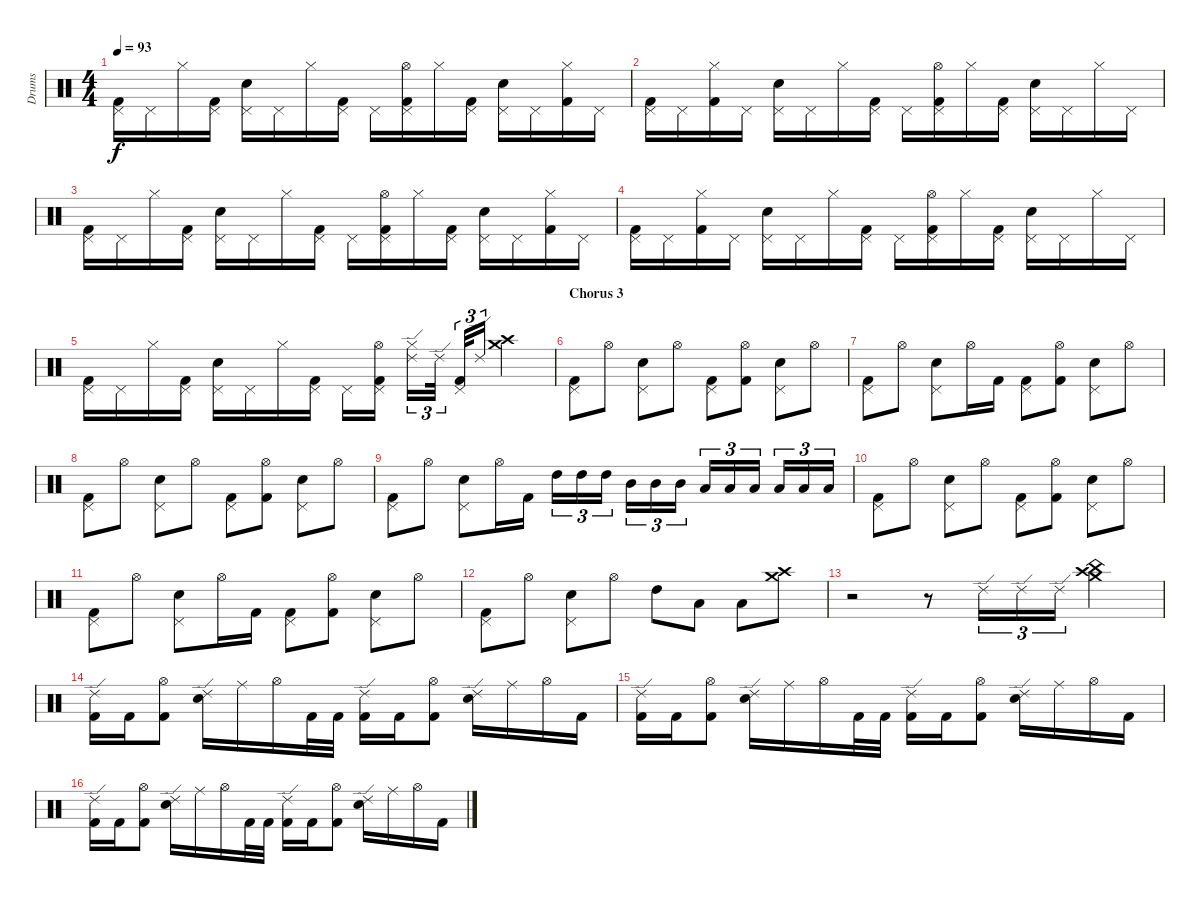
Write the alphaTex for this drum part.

\track ("Drums" "Drums") {instrument percussion}
\staff {score}
\articulation defaults
\ts (4 4)
\tempo 93
\clef neutral
\ks c
("Pedal Hi-Hat (hit)" "Kick (hit) 2").16{dy f} "Pedal Hi-Hat (hit)".16 "Hi-Hat (closed)".16 ("Pedal Hi-Hat (hit)" "Kick (hit) 2").16 ("Pedal Hi-Hat (hit)" "Snare (hit) 2").16 "Pedal Hi-Hat (hit)".16 "Hi-Hat (closed)".16 ("Pedal Hi-Hat (hit)" "Kick (hit) 2").16 "Pedal Hi-Hat (hit)".16 ("Pedal Hi-Hat (hit)" "Kick (hit) 2" "Hi-Hat (open)").16 "Hi-Hat (closed)".16 ("Pedal Hi-Hat (hit)" "Kick (hit) 2").16 ("Pedal Hi-Hat (hit)" "Snare (hit) 2").16 "Pedal Hi-Hat (hit)".16 ("Hi-Hat (closed)" "Kick (hit) 2").16 "Pedal Hi-Hat (hit)".16 |
("Pedal Hi-Hat (hit)" "Kick (hit) 2").16 "Pedal Hi-Hat (hit)".16 ("Hi-Hat (closed)" "Kick (hit) 2").16 "Pedal Hi-Hat (hit)".16 ("Pedal Hi-Hat (hit)" "Snare (hit) 2").16 "Pedal Hi-Hat (hit)".16 "Hi-Hat (closed)".16 ("Pedal Hi-Hat (hit)" "Kick (hit) 2").16 "Pedal Hi-Hat (hit)".16 ("Pedal Hi-Hat (hit)" "Kick (hit) 2" "Hi-Hat (open)").16 "Hi-Hat (closed)".16 ("Pedal Hi-Hat (hit)" "Kick (hit) 2").16 ("Pedal Hi-Hat (hit)" "Snare (hit) 2").16 "Pedal Hi-Hat (hit)".16 "Hi-Hat (closed)".16 "Pedal Hi-Hat (hit)".16 |
("Pedal Hi-Hat (hit)" "Kick (hit) 2").16 "Pedal Hi-Hat (hit)".16 "Hi-Hat (closed)".16 ("Pedal Hi-Hat (hit)" "Kick (hit) 2").16 ("Pedal Hi-Hat (hit)" "Snare (hit) 2").16 "Pedal Hi-Hat (hit)".16 "Hi-Hat (closed)".16 ("Pedal Hi-Hat (hit)" "Kick (hit) 2").16 "Pedal Hi-Hat (hit)".16 ("Pedal Hi-Hat (hit)" "Kick (hit) 2" "Hi-Hat (open)").16 "Hi-Hat (closed)".16 ("Pedal Hi-Hat (hit)" "Kick (hit) 2").16 ("Pedal Hi-Hat (hit)" "Snare (hit) 2").16 "Pedal Hi-Hat (hit)".16 ("Hi-Hat (closed)" "Kick (hit) 2").16 "Pedal Hi-Hat (hit)".16 |
("Pedal Hi-Hat (hit)" "Kick (hit) 2").16 "Pedal Hi-Hat (hit)".16 ("Hi-Hat (closed)" "Kick (hit) 2").16 "Pedal Hi-Hat (hit)".16 ("Pedal Hi-Hat (hit)" "Snare (hit) 2").16 "Pedal Hi-Hat (hit)".16 "Hi-Hat (closed)".16 ("Pedal Hi-Hat (hit)" "Kick (hit) 2").16 "Pedal Hi-Hat (hit)".16 ("Pedal Hi-Hat (hit)" "Kick (hit) 2" "Hi-Hat (open)").16 "Hi-Hat (closed)".16 ("Pedal Hi-Hat (hit)" "Kick (hit) 2").16 ("Pedal Hi-Hat (hit)" "Snare (hit) 2").16 "Pedal Hi-Hat (hit)".16 "Hi-Hat (closed)".16 "Pedal Hi-Hat (hit)".16 |
("Pedal Hi-Hat (hit)" "Kick (hit) 2").16 "Pedal Hi-Hat (hit)".16 "Hi-Hat (closed)".16 ("Pedal Hi-Hat (hit)" "Kick (hit) 2").16 ("Pedal Hi-Hat (hit)" "Snare (hit) 2").16 "Pedal Hi-Hat (hit)".16 "Hi-Hat (closed)".16 ("Pedal Hi-Hat (hit)" "Kick (hit) 2").16 "Pedal Hi-Hat (hit)".16 ("Pedal Hi-Hat (hit)" "Kick (hit) 2" "Hi-Hat (open)").16 ("Ride (edge) 2" "Hi-Hat (closed)").16{tu (3 2)} "Ride (edge) 2".32{tu (3 2)} ("Pedal Hi-Hat (hit)" "Kick (hit) 2").32{tu (3 2)} "Ride (edge) 2".16{tu (3 2)} ("Crash medium (hit)" "Crash high (hit)").4 |
\section ("" "Chorus 3")
("Pedal Hi-Hat (hit)" "Kick (hit) 2").8 "Hi-Hat (open)".8 ("Pedal Hi-Hat (hit)" "Snare (hit) 2").8 "Hi-Hat (open)".8 ("Pedal Hi-Hat (hit)" "Kick (hit) 2").8 ("Hi-Hat (open)" "Kick (hit) 2").8 ("Pedal Hi-Hat (hit)" "Snare (hit) 2").8 "Hi-Hat (open)".8 |
("Pedal Hi-Hat (hit)" "Kick (hit) 2").8 "Hi-Hat (open)".8 ("Pedal Hi-Hat (hit)" "Snare (hit) 2").8 "Hi-Hat (open)".16 "Kick (hit) 2".16 ("Pedal Hi-Hat (hit)" "Kick (hit) 2").8 ("Hi-Hat (open)" "Kick (hit) 2").8 ("Pedal Hi-Hat (hit)" "Snare (hit) 2").8 "Hi-Hat (open)".8 |
("Pedal Hi-Hat (hit)" "Kick (hit) 2").8 "Hi-Hat (open)".8 ("Pedal Hi-Hat (hit)" "Snare (hit) 2").8 "Hi-Hat (open)".8 ("Pedal Hi-Hat (hit)" "Kick (hit) 2").8 ("Hi-Hat (open)" "Kick (hit) 2").8 ("Pedal Hi-Hat (hit)" "Snare (hit) 2").8 "Hi-Hat (open)".8 |
("Pedal Hi-Hat (hit)" "Kick (hit) 2").8 "Hi-Hat (open)".8 ("Pedal Hi-Hat (hit)" "Snare (hit) 2").8 "Hi-Hat (open)".16 "Kick (hit) 2".16 "High Tom (hit)".16{tu (3 2)} "High Tom (hit)".16{tu (3 2)} "High Tom (hit)".16{tu (3 2)} "Mid Tom (hit)".16{tu (3 2)} "Mid Tom (hit)".16{tu (3 2)} "Mid Tom (hit)".16{tu (3 2)} "Low Tom (hit)".16{tu (3 2)} "Low Tom (hit)".16{tu (3 2)} "Low Tom (hit)".16{tu (3 2)} "Low Floor Tom (hit)".16{tu (3 2)} "Low Floor Tom (hit)".16{tu (3 2)} "Low Floor Tom (hit)".16{tu (3 2)} |
("Pedal Hi-Hat (hit)" "Kick (hit) 2").8 "Hi-Hat (open)".8 ("Pedal Hi-Hat (hit)" "Snare (hit) 2").8 "Hi-Hat (open)".8 ("Pedal Hi-Hat (hit)" "Kick (hit) 2").8 ("Hi-Hat (open)" "Kick (hit) 2").8 ("Pedal Hi-Hat (hit)" "Snare (hit) 2").8 "Hi-Hat (open)".8 |
("Pedal Hi-Hat (hit)" "Kick (hit) 2").8 "Hi-Hat (open)".8 ("Pedal Hi-Hat (hit)" "Snare (hit) 2").8 "Hi-Hat (open)".16 "Kick (hit) 2".16 ("Pedal Hi-Hat (hit)" "Kick (hit) 2").8 ("Hi-Hat (open)" "Kick (hit) 2").8 ("Pedal Hi-Hat (hit)" "Snare (hit) 2").8 "Hi-Hat (open)".8 |
("Pedal Hi-Hat (hit)" "Kick (hit) 2").8 "Hi-Hat (open)".8 ("Pedal Hi-Hat (hit)" "Snare (hit) 2").8 "Hi-Hat (open)".8 "High Tom (hit)".8 "Low Tom (hit)".8 "Low Floor Tom (hit)".8 ("Crash high (hit)" "Crash medium (hit)").8 |
r.2 r.8 "Ride (edge) 2".16{tu (3 2)} "Ride (edge) 2".16{tu (3 2)} "Ride (edge) 2".16{tu (3 2)} ("Crash medium (hit)" "Crash high (hit)" "China (hit)").4 |
("Kick (hit) 2" "Ride (edge) 2").16 "Kick (hit) 2".16 ("Kick (hit) 2" "Hi-Hat (open)").8 ("Ride (edge) 2" "Snare (hit) 2").16 "Ride (middle)".16 "Hi-Hat (open)".16 "Kick (hit) 2".32 "Kick (hit) 2".32 ("Ride (edge) 2" "Kick (hit) 2").16 "Kick (hit) 2".16 ("Hi-Hat (open)" "Kick (hit) 2").8 ("Ride (edge) 2" "Snare (hit) 2").16 "Ride (middle)".16 "Hi-Hat (open)".16 "Kick (hit) 2".16 |
("Kick (hit) 2" "Ride (edge) 2").16 "Kick (hit) 2".16 ("Kick (hit) 2" "Hi-Hat (open)").8 ("Ride (edge) 2" "Snare (hit) 2").16 "Ride (middle)".16 "Hi-Hat (open)".16 "Kick (hit) 2".32 "Kick (hit) 2".32 ("Ride (edge) 2" "Kick (hit) 2").16 "Kick (hit) 2".16 ("Hi-Hat (open)" "Kick (hit) 2").8 ("Ride (edge) 2" "Snare (hit) 2").16 "Ride (middle)".16 "Hi-Hat (open)".16 "Kick (hit) 2".16 |
("Kick (hit) 2" "Ride (edge) 2").16 "Kick (hit) 2".16 ("Kick (hit) 2" "Hi-Hat (open)").8 ("Ride (edge) 2" "Snare (hit) 2").16 "Ride (middle)".16 "Hi-Hat (open)".16 "Kick (hit) 2".32 "Kick (hit) 2".32 ("Ride (edge) 2" "Kick (hit) 2").16 "Kick (hit) 2".16 ("Hi-Hat (open)" "Kick (hit) 2").8 ("Ride (edge) 2" "Snare (hit) 2").16 "Ride (middle)".16 "Hi-Hat (open)".16 "Kick (hit) 2".16
